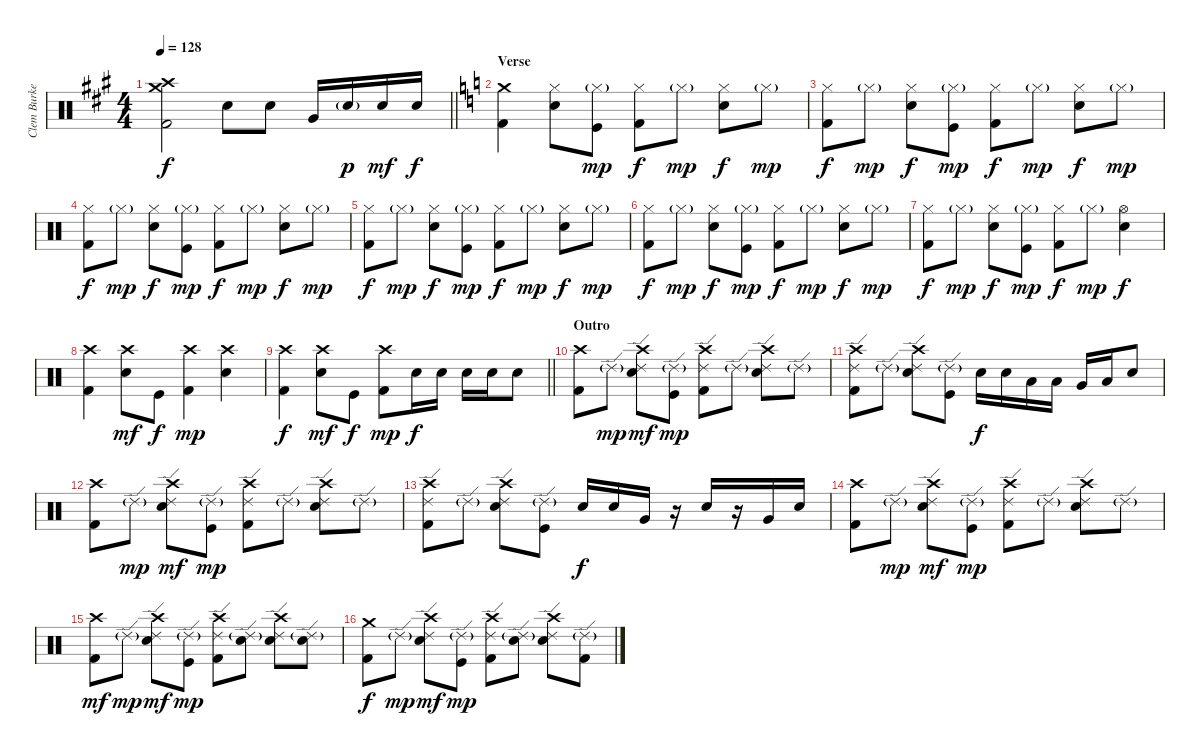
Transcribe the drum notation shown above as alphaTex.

\track ("Clem Burke" "Clem Burke") {instrument percussion}
\staff {score}
\articulation defaults
\ts (4 4)
\tempo 128
\clef neutral
\barLineRight lightlight
\ks a
("Crash high (hit)" "Crash medium (hit)" "Kick (hit) 2").2{dy f} "Electric Snare (hit)".8 "Electric Snare (hit)".8 "Very Low Tom (hit)".16 "Electric Snare (hit)"{g}.16{dy p} "Electric Snare (hit)".16{dy mf} "Electric Snare (hit)".16{dy f} |
\section ("" "Verse")
\ks c
("Crash medium (hit)" "Kick (hit) 2").4 ("Hi-Hat (closed)" "Electric Snare (hit)").8 ("Hi-Hat (closed)"{g} "Kick (hit)").8{dy mp} ("Hi-Hat (closed)" "Kick (hit) 2").8{dy f} "Hi-Hat (closed)"{g}.8{dy mp} ("Hi-Hat (closed)" "Electric Snare (hit)").8{dy f} "Hi-Hat (closed)"{g}.8{dy mp} |
("Hi-Hat (closed)" "Kick (hit) 2").8{dy f} "Hi-Hat (closed)"{g}.8{dy mp} ("Hi-Hat (closed)" "Electric Snare (hit)").8{dy f} ("Hi-Hat (closed)"{g} "Kick (hit)").8{dy mp} ("Hi-Hat (closed)" "Kick (hit) 2").8{dy f} "Hi-Hat (closed)"{g}.8{dy mp} ("Hi-Hat (closed)" "Electric Snare (hit)").8{dy f} "Hi-Hat (closed)"{g}.8{dy mp} |
("Hi-Hat (closed)" "Kick (hit) 2").8{dy f} "Hi-Hat (closed)"{g}.8{dy mp} ("Hi-Hat (closed)" "Electric Snare (hit)").8{dy f} ("Hi-Hat (closed)"{g} "Kick (hit)").8{dy mp} ("Hi-Hat (closed)" "Kick (hit) 2").8{dy f} "Hi-Hat (closed)"{g}.8{dy mp} ("Hi-Hat (closed)" "Electric Snare (hit)").8{dy f} "Hi-Hat (closed)"{g}.8{dy mp} |
("Hi-Hat (closed)" "Kick (hit) 2").8{dy f} "Hi-Hat (closed)"{g}.8{dy mp} ("Hi-Hat (closed)" "Electric Snare (hit)").8{dy f} ("Hi-Hat (closed)"{g} "Kick (hit)").8{dy mp} ("Hi-Hat (closed)" "Kick (hit) 2").8{dy f} "Hi-Hat (closed)"{g}.8{dy mp} ("Hi-Hat (closed)" "Electric Snare (hit)").8{dy f} "Hi-Hat (closed)"{g}.8{dy mp} |
("Hi-Hat (closed)" "Kick (hit) 2").8{dy f} "Hi-Hat (closed)"{g}.8{dy mp} ("Hi-Hat (closed)" "Electric Snare (hit)").8{dy f} ("Hi-Hat (closed)"{g} "Kick (hit)").8{dy mp} ("Hi-Hat (closed)" "Kick (hit) 2").8{dy f} "Hi-Hat (closed)"{g}.8{dy mp} ("Hi-Hat (closed)" "Electric Snare (hit)").8{dy f} "Hi-Hat (closed)"{g}.8{dy mp} |
("Hi-Hat (closed)" "Kick (hit) 2").8{dy f} "Hi-Hat (closed)"{g}.8{dy mp} ("Hi-Hat (closed)" "Electric Snare (hit)").8{dy f} ("Hi-Hat (closed)"{g} "Kick (hit)").8{dy mp} ("Hi-Hat (closed)" "Kick (hit) 2").8{dy f} "Hi-Hat (closed)"{g}.8{dy mp} ("Hi-Hat (open)" "Electric Snare (hit)").4{dy f} |
("Crash high (hit)" "Kick (hit) 2").4 ("Crash high (hit)" "Electric Snare (hit)").8{dy mf} "Kick (hit)".8{dy f} ("Crash high (hit)" "Kick (hit) 2").4{dy mp} ("Crash high (hit)" "Electric Snare (hit)").4 |
\barLineRight lightlight
("Crash high (hit)" "Kick (hit) 2").4{dy f} ("Crash high (hit)" "Electric Snare (hit)").8{dy mf} "Kick (hit)".8{dy f} ("Crash high (hit)" "Kick (hit) 2").8{dy mp} "Electric Snare (hit)".16{dy f} "Electric Snare (hit)".16 "Electric Snare (hit)".16 "Electric Snare (hit)".16 "Electric Snare (hit)".8 |
\section ("" "Outro")
("Crash high (hit)" "Kick (hit) 2").8 "Ride (edge) 2"{g}.8{dy mp} ("Ride (edge) 2" "Crash high (hit)" "Electric Snare (hit)").8{dy mf} ("Ride (edge) 2"{g} "Kick (hit)").8{dy mp} ("Ride (edge) 2" "Crash high (hit)" "Kick (hit) 2").8 "Ride (edge) 2"{g}.8 ("Ride (edge) 2" "Crash high (hit)" "Electric Snare (hit)").8 "Ride (edge) 2"{g}.8 |
("Crash high (hit)" "Ride (edge) 2" "Kick (hit) 2").8 "Ride (edge) 2"{g}.8 ("Ride (edge) 2" "Crash high (hit)" "Electric Snare (hit)").8 ("Ride (edge) 2"{g} "Kick (hit)").8 "Electric Snare (hit)".16{dy f} "Electric Snare (hit)".16 "Low Tom (hit)".16 "Low Tom (hit)".16 "Very Low Tom (hit)".16 "Low Floor Tom (hit)".16 "Electric Snare (hit)".8 |
("Crash high (hit)" "Kick (hit) 2").8 "Ride (edge) 2"{g}.8{dy mp} ("Ride (edge) 2" "Crash high (hit)" "Electric Snare (hit)").8{dy mf} ("Ride (edge) 2"{g} "Kick (hit)").8{dy mp} ("Ride (edge) 2" "Crash high (hit)" "Kick (hit) 2").8 "Ride (edge) 2"{g}.8 ("Ride (edge) 2" "Crash high (hit)" "Electric Snare (hit)").8 "Ride (edge) 2"{g}.8 |
("Crash high (hit)" "Ride (edge) 2" "Kick (hit) 2").8 "Ride (edge) 2"{g}.8 ("Ride (edge) 2" "Crash high (hit)" "Electric Snare (hit)").8 ("Ride (edge) 2"{g} "Kick (hit)").8 "Electric Snare (hit)".16{dy f} "Electric Snare (hit)".16 "Very Low Tom (hit)".16 r.16 "Electric Snare (hit)".16 r.16 "Very Low Tom (hit)".16 "Electric Snare (hit)".16 |
("Crash high (hit)" "Kick (hit) 2").8 "Ride (edge) 2"{g}.8{dy mp} ("Ride (edge) 2" "Crash high (hit)" "Electric Snare (hit)").8{dy mf} ("Ride (edge) 2"{g} "Kick (hit)").8{dy mp} ("Ride (edge) 2" "Crash high (hit)" "Kick (hit) 2").8 "Ride (edge) 2"{g}.8 ("Ride (edge) 2" "Crash high (hit)" "Electric Snare (hit)").8 "Ride (edge) 2"{g}.8 |
("Crash high (hit)" "Kick (hit) 2").8{dy mf} "Ride (edge) 2"{g}.8{dy mp} ("Ride (edge) 2" "Crash high (hit)" "Electric Snare (hit)").8{dy mf} ("Ride (edge) 2"{g} "Kick (hit)").8{dy mp} ("Ride (edge) 2" "Crash high (hit)" "Kick (hit) 2").8 ("Ride (edge) 2"{g} "Electric Snare (hit)").8 ("Ride (edge) 2" "Crash high (hit)" "Electric Snare (hit)").8 ("Ride (edge) 2"{g} "Electric Snare (hit)").8 |
("Crash medium (hit)" "Kick (hit) 2").8{dy f} "Ride (edge) 2"{g}.8{dy mp} ("Ride (edge) 2" "Crash high (hit)" "Electric Snare (hit)").8{dy mf} ("Ride (edge) 2"{g} "Kick (hit)").8{dy mp} ("Ride (edge) 2" "Crash high (hit)" "Kick (hit) 2").8 ("Ride (edge) 2"{g} "Electric Snare (hit)").8 ("Ride (edge) 2" "Crash high (hit)" "Electric Snare (hit)").8 ("Ride (edge) 2"{g} "Kick (hit) 2").8
